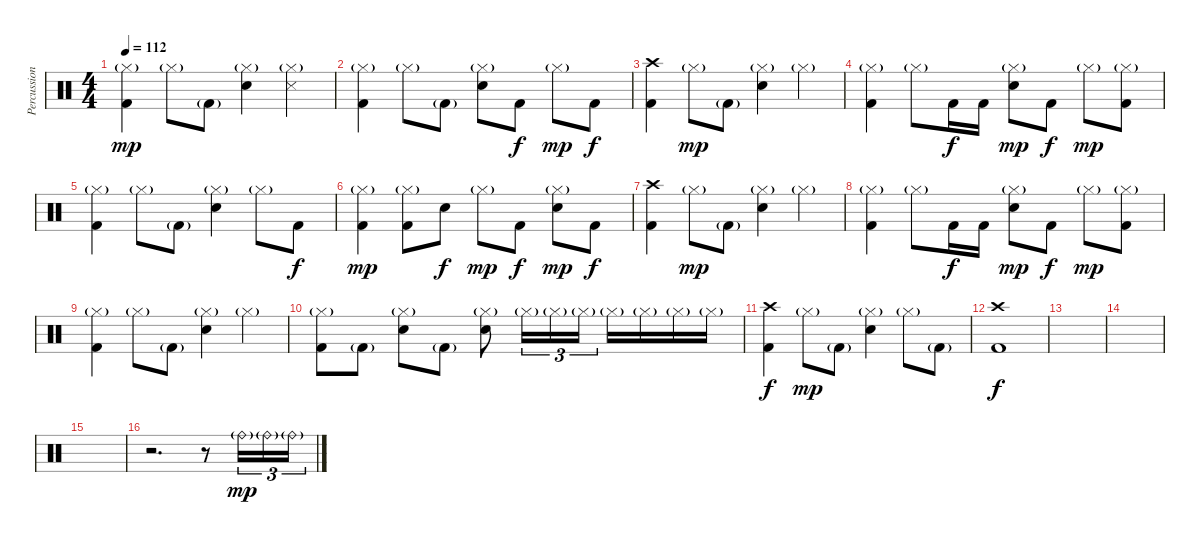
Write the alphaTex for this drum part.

\track ("Percussion" "Percussion") {instrument percussion}
\staff {score}
\articulation defaults
\ts (4 4)
\tempo 112
\clef neutral
\ks c
("Hi-Hat (closed)"{g} "Kick (hit) 2").4{dy mp} "Hi-Hat (closed)"{g}.8 "Kick (hit) 2"{g}.8 ("Hi-Hat (closed)"{g} "Snare (hit) 2").4 ("Hi-Hat (closed)"{g} "Snare (side stick) 3").4 |
("Hi-Hat (closed)"{g} "Kick (hit) 2").4 "Hi-Hat (closed)"{g}.8 "Kick (hit) 2"{g}.8 ("Hi-Hat (closed)"{g} "Snare (hit) 2").8 "Kick (hit) 2".8{dy f} "Hi-Hat (closed)"{g}.8{dy mp} "Kick (hit) 2".8{dy f} |
("Crash high (hit)" "Kick (hit) 2").4 "Hi-Hat (closed)"{g}.8{dy mp} "Kick (hit) 2"{g}.8 ("Hi-Hat (closed)"{g} "Snare (hit) 2").4 "Hi-Hat (closed)"{g}.4 |
("Hi-Hat (closed)"{g} "Kick (hit) 2").4 "Hi-Hat (closed)"{g}.8 "Kick (hit) 2".16{dy f} "Kick (hit) 2".16 ("Hi-Hat (closed)"{g} "Snare (hit) 2").8{dy mp} "Kick (hit) 2".8{dy f} "Hi-Hat (closed)"{g}.8{dy mp} ("Hi-Hat (closed)"{g} "Kick (hit) 2").8 |
("Hi-Hat (closed)"{g} "Kick (hit) 2").4 "Hi-Hat (closed)"{g}.8 "Kick (hit) 2"{g}.8 ("Hi-Hat (closed)"{g} "Snare (hit) 2").4 "Hi-Hat (closed)"{g}.8 "Kick (hit) 2".8{dy f} |
("Hi-Hat (closed)"{g} "Kick (hit) 2").4{dy mp} ("Hi-Hat (closed)"{g} "Kick (hit) 2").8 "Snare (hit) 2".8{dy f} "Hi-Hat (closed)"{g}.8{dy mp} "Kick (hit) 2".8{dy f} ("Hi-Hat (closed)"{g} "Snare (hit) 2").8{dy mp} "Kick (hit) 2".8{dy f} |
("Crash high (hit)" "Kick (hit) 2").4 "Hi-Hat (closed)"{g}.8{dy mp} "Kick (hit) 2"{g}.8 ("Hi-Hat (closed)"{g} "Snare (hit) 2").4 "Hi-Hat (closed)"{g}.4 |
("Hi-Hat (closed)"{g} "Kick (hit) 2").4 "Hi-Hat (closed)"{g}.8 "Kick (hit) 2".16{dy f} "Kick (hit) 2".16 ("Hi-Hat (closed)"{g} "Snare (hit) 2").8{dy mp} "Kick (hit) 2".8{dy f} "Hi-Hat (closed)"{g}.8{dy mp} ("Hi-Hat (closed)"{g} "Kick (hit) 2").8 |
("Hi-Hat (closed)"{g} "Kick (hit) 2").4 "Hi-Hat (closed)"{g}.8 "Kick (hit) 2"{g}.8 ("Hi-Hat (closed)"{g} "Snare (hit) 2").4 "Hi-Hat (closed)"{g}.4 |
("Hi-Hat (closed)"{g} "Kick (hit) 2").8 "Kick (hit) 2"{g}.8 ("Hi-Hat (closed)"{g} "Snare (hit) 2").8 "Kick (hit) 2"{g}.8 ("Hi-Hat (closed)"{g} "Snare (hit) 2").8 "Hi-Hat (closed)"{g}.16{tu (3 2)} "Hi-Hat (closed)"{g}.16{tu (3 2)} "Hi-Hat (closed)"{g}.16{tu (3 2)} "Hi-Hat (closed)"{g}.16 "Hi-Hat (closed)"{g}.16 "Hi-Hat (closed)"{g}.16 "Hi-Hat (closed)"{g}.16 |
("Crash high (hit)" "Kick (hit) 2").4{dy f} "Hi-Hat (closed)"{g}.8{dy mp} "Kick (hit) 2"{g}.8 ("Hi-Hat (closed)"{g} "Snare (hit) 2").4 "Hi-Hat (closed)"{g}.8 "Kick (hit) 2"{g}.8 |
("Crash high (hit)" "Kick (hit) 2").1{dy f} |
|
|
|
r.2{d} r.8 "Ride (bell)"{g}.16{tu (3 2) dy mp} "Ride (bell)"{g}.16{tu (3 2)} "Ride (bell)"{g}.16{tu (3 2)}
